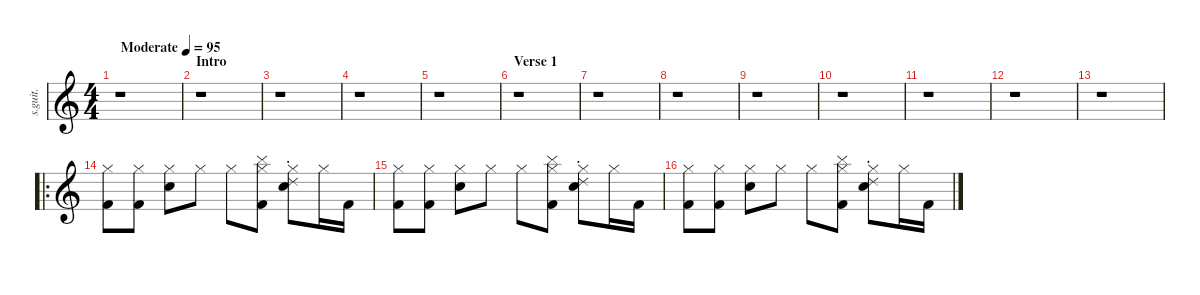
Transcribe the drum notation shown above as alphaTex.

\defaultSystemsLayout 4
\hideDynamics
\bracketExtendMode nobrackets
\track ("(Electronic Beats)" "s.guit.") {instrument percussion}
\staff {score}
\articulation defaults
\ts (4 4)
\beaming (8 2 2 2 2)
\tempo (95 "Moderate")
\clef g2
\ks c
r.1{dy mp} |
\section ("" "Intro")
r.1 |
r.1 |
r.1 |
r.1 |
\section ("" "Verse 1")
r.1 |
r.1 |
r.1 |
r.1 |
r.1 |
r.1 |
r.1 |
r.1 |
\ro
("Hi-Hat (closed)" "Kick (hit) 2").8{lyrics (0 "") lyrics (1 "") lyrics (2 "") lyrics (3 "") lyrics (4 "")} ("Hi-Hat (closed)" "Kick (hit) 2").8{lyrics (0 "") lyrics (1 "") lyrics (2 "") lyrics (3 "") lyrics (4 "")} ("Hi-Hat (closed)" "Snare (hit) 2").8{lyrics (0 "") lyrics (1 "") lyrics (2 "") lyrics (3 "") lyrics (4 "")} "Hi-Hat (closed)".8{lyrics (0 "") lyrics (1 "") lyrics (2 "") lyrics (3 "") lyrics (4 "")} "Hi-Hat (closed)".8{lyrics (0 "") lyrics (1 "") lyrics (2 "") lyrics (3 "") lyrics (4 "")} ("Hi-Hat (closed)" "Cymbal (hit)" "Kick (hit) 2").8{lyrics (0 "") lyrics (1 "") lyrics (2 "") lyrics (3 "") lyrics (4 "")} ("Hi-Hat (closed)" "Snare (hit) 2" "Ride (choke) 2").8{lyrics (0 "") lyrics (1 "") lyrics (2 "") lyrics (3 "") lyrics (4 "")} "Hi-Hat (closed)".16{lyrics (0 "") lyrics (1 "") lyrics (2 "") lyrics (3 "") lyrics (4 "")} "Kick (hit) 2".16{lyrics (0 "") lyrics (1 "") lyrics (2 "") lyrics (3 "") lyrics (4 "")} |
("Hi-Hat (closed)" "Kick (hit) 2").8{lyrics (0 "") lyrics (1 "") lyrics (2 "") lyrics (3 "") lyrics (4 "")} ("Hi-Hat (closed)" "Kick (hit) 2").8{lyrics (0 "") lyrics (1 "") lyrics (2 "") lyrics (3 "") lyrics (4 "")} ("Hi-Hat (closed)" "Snare (hit) 2").8{lyrics (0 "") lyrics (1 "") lyrics (2 "") lyrics (3 "") lyrics (4 "")} "Hi-Hat (closed)".8{lyrics (0 "") lyrics (1 "") lyrics (2 "") lyrics (3 "") lyrics (4 "")} "Hi-Hat (closed)".8{lyrics (0 "") lyrics (1 "") lyrics (2 "") lyrics (3 "") lyrics (4 "")} ("Hi-Hat (closed)" "Cymbal (hit)" "Kick (hit) 2").8{lyrics (0 "") lyrics (1 "") lyrics (2 "") lyrics (3 "") lyrics (4 "")} ("Hi-Hat (closed)" "Snare (hit) 2" "Ride (choke) 2").8{lyrics (0 "") lyrics (1 "") lyrics (2 "") lyrics (3 "") lyrics (4 "")} "Hi-Hat (closed)".16{lyrics (0 "") lyrics (1 "") lyrics (2 "") lyrics (3 "") lyrics (4 "")} "Kick (hit) 2".16{lyrics (0 "") lyrics (1 "") lyrics (2 "") lyrics (3 "") lyrics (4 "")} |
("Hi-Hat (closed)" "Kick (hit) 2").8{lyrics (0 "") lyrics (1 "") lyrics (2 "") lyrics (3 "") lyrics (4 "")} ("Hi-Hat (closed)" "Kick (hit) 2").8{lyrics (0 "") lyrics (1 "") lyrics (2 "") lyrics (3 "") lyrics (4 "")} ("Hi-Hat (closed)" "Snare (hit) 2").8{lyrics (0 "") lyrics (1 "") lyrics (2 "") lyrics (3 "") lyrics (4 "")} "Hi-Hat (closed)".8{lyrics (0 "") lyrics (1 "") lyrics (2 "") lyrics (3 "") lyrics (4 "")} "Hi-Hat (closed)".8{lyrics (0 "") lyrics (1 "") lyrics (2 "") lyrics (3 "") lyrics (4 "")} ("Hi-Hat (closed)" "Cymbal (hit)" "Kick (hit) 2").8{lyrics (0 "") lyrics (1 "") lyrics (2 "") lyrics (3 "") lyrics (4 "")} ("Hi-Hat (closed)" "Snare (hit) 2" "Ride (choke) 2").8{lyrics (0 "") lyrics (1 "") lyrics (2 "") lyrics (3 "") lyrics (4 "")} "Hi-Hat (closed)".16{lyrics (0 "") lyrics (1 "") lyrics (2 "") lyrics (3 "") lyrics (4 "")} "Kick (hit) 2".16{lyrics (0 "") lyrics (1 "") lyrics (2 "") lyrics (3 "") lyrics (4 "")}
